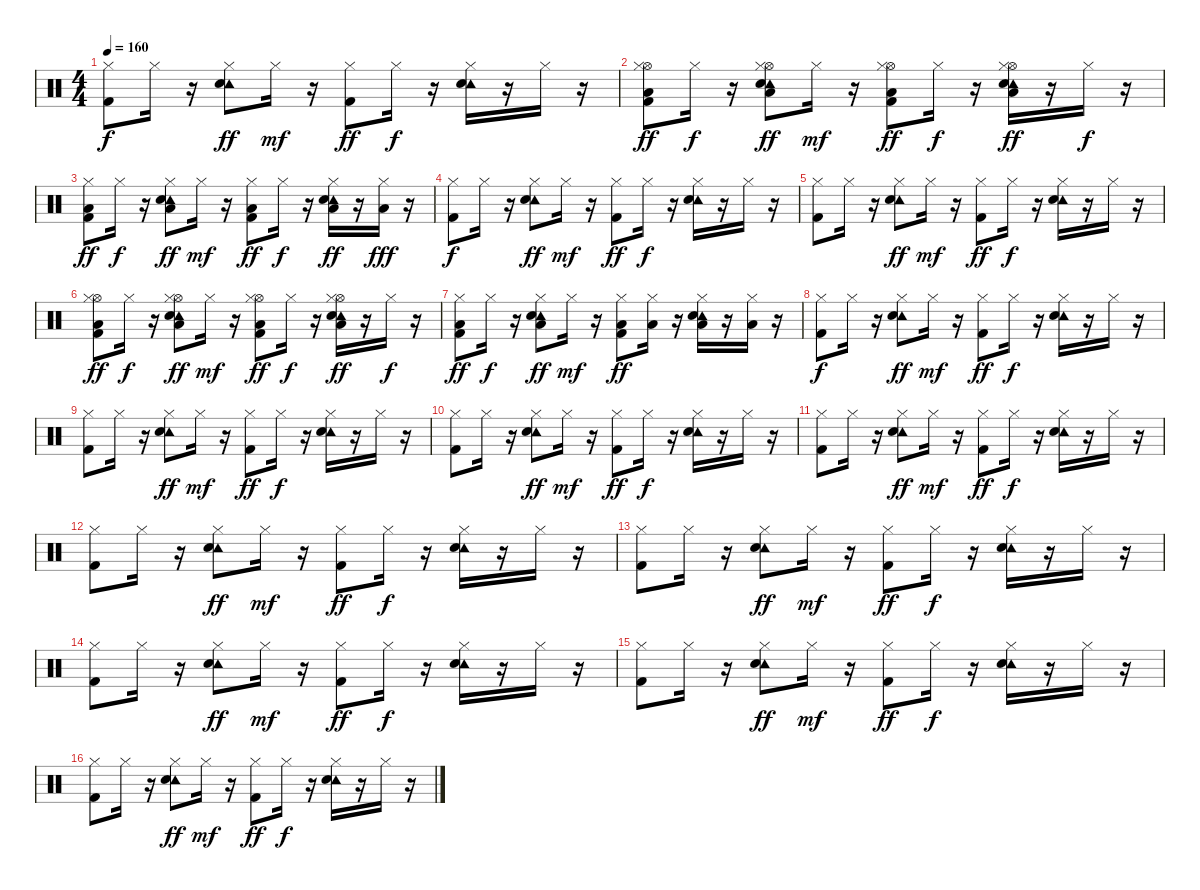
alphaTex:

\track "" {instrument percussion}
\staff {score}
\articulation defaults
\ts (4 4)
\tempo 160
\clef neutral
\ks c
("Hi-Hat (closed)" "Kick (hit) 2").8{dy f} "Hi-Hat (closed)".16 r.16 ("Tambourine (hit)" "Hi-Hat (closed)" "Snare (hit) 2").8{dy ff} "Hi-Hat (closed)".16{dy mf} r.16 ("Hi-Hat (closed)" "Kick (hit) 2").8{dy ff} "Hi-Hat (closed)".16{dy f} r.16 ("Tambourine (hit)" "Hi-Hat (closed)" "Snare (hit) 2").16 r.16 "Hi-Hat (closed)".16 r.16 |
("Hi-Hat (open)" "Low Floor Tom (hit)" "Hi-Hat (closed)" "Kick (hit) 2").8{dy ff} "Hi-Hat (closed)".16{dy f} r.16 ("Hi-Hat (open)" "Low Floor Tom (hit)" "Tambourine (hit)" "Hi-Hat (closed)" "Snare (hit) 2").8{dy ff} "Hi-Hat (closed)".16{dy mf} r.16 ("Hi-Hat (open)" "Low Floor Tom (hit)" "Hi-Hat (closed)" "Kick (hit) 2").8{dy ff} "Hi-Hat (closed)".16{dy f} r.16 ("Low Floor Tom (hit)" "Hi-Hat (open)" "Tambourine (hit)" "Hi-Hat (closed)" "Snare (hit) 2").16{dy ff} r.16 "Hi-Hat (closed)".16{dy f} r.16 |
("Low Floor Tom (hit)" "Hi-Hat (closed)" "Kick (hit) 2").8{dy ff} "Hi-Hat (closed)".16{dy f} r.16 ("Low Floor Tom (hit)" "Tambourine (hit)" "Hi-Hat (closed)" "Snare (hit) 2").8{dy ff} "Hi-Hat (closed)".16{dy mf} r.16 ("Low Floor Tom (hit)" "Hi-Hat (closed)" "Kick (hit) 2").8{dy ff} "Hi-Hat (closed)".16{dy f} r.16 ("Low Floor Tom (hit)" "Tambourine (hit)" "Hi-Hat (closed)" "Snare (hit) 2").16{dy ff} r.16 ("Low Floor Tom (hit)" "Hi-Hat (closed)").16{dy fff} r.16 |
("Hi-Hat (closed)" "Kick (hit) 2").8{dy f} "Hi-Hat (closed)".16 r.16 ("Tambourine (hit)" "Hi-Hat (closed)" "Snare (hit) 2").8{dy ff} "Hi-Hat (closed)".16{dy mf} r.16 ("Hi-Hat (closed)" "Kick (hit) 2").8{dy ff} "Hi-Hat (closed)".16{dy f} r.16 ("Tambourine (hit)" "Hi-Hat (closed)" "Snare (hit) 2").16 r.16 "Hi-Hat (closed)".16 r.16 |
("Hi-Hat (closed)" "Kick (hit) 2").8 "Hi-Hat (closed)".16 r.16 ("Tambourine (hit)" "Hi-Hat (closed)" "Snare (hit) 2").8{dy ff} "Hi-Hat (closed)".16{dy mf} r.16 ("Hi-Hat (closed)" "Kick (hit) 2").8{dy ff} "Hi-Hat (closed)".16{dy f} r.16 ("Tambourine (hit)" "Hi-Hat (closed)" "Snare (hit) 2").16 r.16 "Hi-Hat (closed)".16 r.16 |
("Hi-Hat (open)" "Low Floor Tom (hit)" "Hi-Hat (closed)" "Kick (hit) 2").8{dy ff} "Hi-Hat (closed)".16{dy f} r.16 ("Hi-Hat (open)" "Low Floor Tom (hit)" "Tambourine (hit)" "Hi-Hat (closed)" "Snare (hit) 2").8{dy ff} "Hi-Hat (closed)".16{dy mf} r.16 ("Low Floor Tom (hit)" "Hi-Hat (open)" "Hi-Hat (closed)" "Kick (hit) 2").8{dy ff} "Hi-Hat (closed)".16{dy f} r.16 ("Hi-Hat (open)" "Low Floor Tom (hit)" "Tambourine (hit)" "Hi-Hat (closed)" "Snare (hit) 2").16{dy ff} r.16 "Hi-Hat (closed)".16{dy f} r.16 |
("Low Floor Tom (hit)" "Hi-Hat (closed)" "Kick (hit) 2").8{dy ff} "Hi-Hat (closed)".16{dy f} r.16 ("Low Floor Tom (hit)" "Tambourine (hit)" "Hi-Hat (closed)" "Snare (hit) 2").8{dy ff} "Hi-Hat (closed)".16{dy mf} r.16 ("Low Floor Tom (hit)" "Hi-Hat (closed)" "Kick (hit) 2").8{dy ff} ("Low Floor Tom (hit)" "Hi-Hat (closed)").16 r.16 ("Low Floor Tom (hit)" "Tambourine (hit)" "Hi-Hat (closed)" "Snare (hit) 2").16 r.16 ("Low Floor Tom (hit)" "Hi-Hat (closed)").16 r.16 |
("Hi-Hat (closed)" "Kick (hit) 2").8{dy f} "Hi-Hat (closed)".16 r.16 ("Tambourine (hit)" "Hi-Hat (closed)" "Snare (hit) 2").8{dy ff} "Hi-Hat (closed)".16{dy mf} r.16 ("Hi-Hat (closed)" "Kick (hit) 2").8{dy ff} "Hi-Hat (closed)".16{dy f} r.16 ("Tambourine (hit)" "Hi-Hat (closed)" "Snare (hit) 2").16 r.16 "Hi-Hat (closed)".16 r.16 |
("Hi-Hat (closed)" "Kick (hit) 2").8 "Hi-Hat (closed)".16 r.16 ("Tambourine (hit)" "Hi-Hat (closed)" "Snare (hit) 2").8{dy ff} "Hi-Hat (closed)".16{dy mf} r.16 ("Hi-Hat (closed)" "Kick (hit) 2").8{dy ff} "Hi-Hat (closed)".16{dy f} r.16 ("Tambourine (hit)" "Hi-Hat (closed)" "Snare (hit) 2").16 r.16 "Hi-Hat (closed)".16 r.16 |
("Hi-Hat (closed)" "Kick (hit) 2").8 "Hi-Hat (closed)".16 r.16 ("Tambourine (hit)" "Hi-Hat (closed)" "Snare (hit) 2").8{dy ff} "Hi-Hat (closed)".16{dy mf} r.16 ("Hi-Hat (closed)" "Kick (hit) 2").8{dy ff} "Hi-Hat (closed)".16{dy f} r.16 ("Tambourine (hit)" "Hi-Hat (closed)" "Snare (hit) 2").16 r.16 "Hi-Hat (closed)".16 r.16 |
("Hi-Hat (closed)" "Kick (hit) 2").8 "Hi-Hat (closed)".16 r.16 ("Tambourine (hit)" "Hi-Hat (closed)" "Snare (hit) 2").8{dy ff} "Hi-Hat (closed)".16{dy mf} r.16 ("Hi-Hat (closed)" "Kick (hit) 2").8{dy ff} "Hi-Hat (closed)".16{dy f} r.16 ("Tambourine (hit)" "Hi-Hat (closed)" "Snare (hit) 2").16 r.16 "Hi-Hat (closed)".16 r.16 |
("Hi-Hat (closed)" "Kick (hit) 2").8 "Hi-Hat (closed)".16 r.16 ("Tambourine (hit)" "Hi-Hat (closed)" "Snare (hit) 2").8{dy ff} "Hi-Hat (closed)".16{dy mf} r.16 ("Hi-Hat (closed)" "Kick (hit) 2").8{dy ff} "Hi-Hat (closed)".16{dy f} r.16 ("Tambourine (hit)" "Hi-Hat (closed)" "Snare (hit) 2").16 r.16 "Hi-Hat (closed)".16 r.16 |
("Hi-Hat (closed)" "Kick (hit) 2").8 "Hi-Hat (closed)".16 r.16 ("Tambourine (hit)" "Hi-Hat (closed)" "Snare (hit) 2").8{dy ff} "Hi-Hat (closed)".16{dy mf} r.16 ("Hi-Hat (closed)" "Kick (hit) 2").8{dy ff} "Hi-Hat (closed)".16{dy f} r.16 ("Tambourine (hit)" "Hi-Hat (closed)" "Snare (hit) 2").16 r.16 "Hi-Hat (closed)".16 r.16 |
("Hi-Hat (closed)" "Kick (hit) 2").8 "Hi-Hat (closed)".16 r.16 ("Tambourine (hit)" "Hi-Hat (closed)" "Snare (hit) 2").8{dy ff} "Hi-Hat (closed)".16{dy mf} r.16 ("Hi-Hat (closed)" "Kick (hit) 2").8{dy ff} "Hi-Hat (closed)".16{dy f} r.16 ("Tambourine (hit)" "Hi-Hat (closed)" "Snare (hit) 2").16 r.16 "Hi-Hat (closed)".16 r.16 |
("Hi-Hat (closed)" "Kick (hit) 2").8 "Hi-Hat (closed)".16 r.16 ("Tambourine (hit)" "Hi-Hat (closed)" "Snare (hit) 2").8{dy ff} "Hi-Hat (closed)".16{dy mf} r.16 ("Hi-Hat (closed)" "Kick (hit) 2").8{dy ff} "Hi-Hat (closed)".16{dy f} r.16 ("Tambourine (hit)" "Hi-Hat (closed)" "Snare (hit) 2").16 r.16 "Hi-Hat (closed)".16 r.16 |
("Hi-Hat (closed)" "Kick (hit) 2").8 "Hi-Hat (closed)".16 r.16 ("Tambourine (hit)" "Hi-Hat (closed)" "Snare (hit) 2").8{dy ff} "Hi-Hat (closed)".16{dy mf} r.16 ("Hi-Hat (closed)" "Kick (hit) 2").8{dy ff} "Hi-Hat (closed)".16{dy f} r.16 ("Tambourine (hit)" "Hi-Hat (closed)" "Snare (hit) 2").16 r.16 "Hi-Hat (closed)".16 r.16
